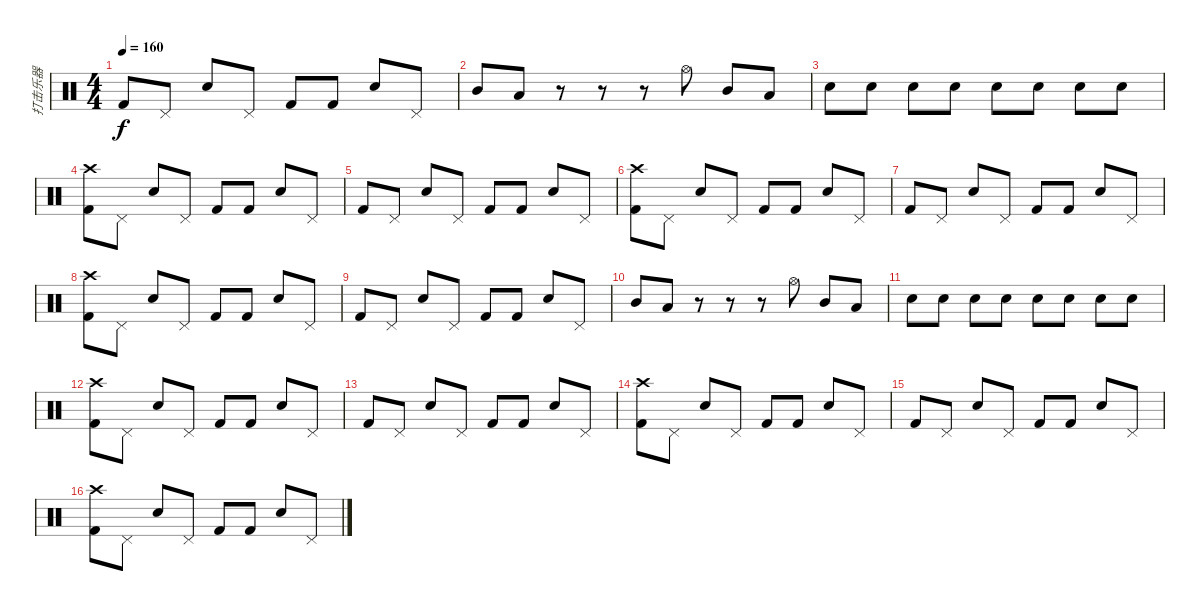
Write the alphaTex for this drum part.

\track ("打击乐器" "打击乐器") {instrument percussion}
\staff {score}
\articulation defaults
\ts (4 4)
\tempo 160
\clef neutral
\ks c "Kick (hit) 2".8{dy f} "Pedal Hi-Hat (hit)".8 "Snare (hit) 2".8 "Pedal Hi-Hat (hit)".8 "Kick (hit) 2".8 "Kick (hit) 2".8 "Snare (hit) 2".8 "Pedal Hi-Hat (hit)".8
|
"Mid Tom (hit)".8 "Low Tom (hit)".8 r.8 r.8 r.8 "Hi-Hat (open)".8 "Mid Tom (hit)".8 "Low Tom (hit)".8 |
"Snare (hit) 2".8 "Snare (hit) 2".8 "Snare (hit) 2".8 "Snare (hit) 2".8 "Snare (hit) 2".8 "Snare (hit) 2".8 "Snare (hit) 2".8 "Snare (hit) 2".8 |
("Crash high (hit)" "Kick (hit) 2").8 "Pedal Hi-Hat (hit)".8 "Snare (hit) 2".8 "Pedal Hi-Hat (hit)".8 "Kick (hit) 2".8 "Kick (hit) 2".8 "Snare (hit) 2".8 "Pedal Hi-Hat (hit)".8 |
"Kick (hit) 2".8 "Pedal Hi-Hat (hit)".8 "Snare (hit) 2".8 "Pedal Hi-Hat (hit)".8 "Kick (hit) 2".8 "Kick (hit) 2".8 "Snare (hit) 2".8 "Pedal Hi-Hat (hit)".8 |
("Crash high (hit)" "Kick (hit) 2").8 "Pedal Hi-Hat (hit)".8 "Snare (hit) 2".8 "Pedal Hi-Hat (hit)".8 "Kick (hit) 2".8 "Kick (hit) 2".8 "Snare (hit) 2".8 "Pedal Hi-Hat (hit)".8 |
"Kick (hit) 2".8 "Pedal Hi-Hat (hit)".8 "Snare (hit) 2".8 "Pedal Hi-Hat (hit)".8 "Kick (hit) 2".8 "Kick (hit) 2".8 "Snare (hit) 2".8 "Pedal Hi-Hat (hit)".8 |
("Crash high (hit)" "Kick (hit) 2").8 "Pedal Hi-Hat (hit)".8 "Snare (hit) 2".8 "Pedal Hi-Hat (hit)".8 "Kick (hit) 2".8 "Kick (hit) 2".8 "Snare (hit) 2".8 "Pedal Hi-Hat (hit)".8 |
"Kick (hit) 2".8 "Pedal Hi-Hat (hit)".8 "Snare (hit) 2".8 "Pedal Hi-Hat (hit)".8 "Kick (hit) 2".8 "Kick (hit) 2".8 "Snare (hit) 2".8 "Pedal Hi-Hat (hit)".8 |
"Mid Tom (hit)".8 "Low Tom (hit)".8 r.8 r.8 r.8 "Hi-Hat (open)".8 "Mid Tom (hit)".8 "Low Tom (hit)".8 |
"Snare (hit) 2".8 "Snare (hit) 2".8 "Snare (hit) 2".8 "Snare (hit) 2".8 "Snare (hit) 2".8 "Snare (hit) 2".8 "Snare (hit) 2".8 "Snare (hit) 2".8 |
("Crash high (hit)" "Kick (hit) 2").8 "Pedal Hi-Hat (hit)".8 "Snare (hit) 2".8 "Pedal Hi-Hat (hit)".8 "Kick (hit) 2".8 "Kick (hit) 2".8 "Snare (hit) 2".8 "Pedal Hi-Hat (hit)".8 |
"Kick (hit) 2".8 "Pedal Hi-Hat (hit)".8 "Snare (hit) 2".8 "Pedal Hi-Hat (hit)".8 "Kick (hit) 2".8 "Kick (hit) 2".8 "Snare (hit) 2".8 "Pedal Hi-Hat (hit)".8 |
("Crash high (hit)" "Kick (hit) 2").8 "Pedal Hi-Hat (hit)".8 "Snare (hit) 2".8 "Pedal Hi-Hat (hit)".8 "Kick (hit) 2".8 "Kick (hit) 2".8 "Snare (hit) 2".8 "Pedal Hi-Hat (hit)".8 |
"Kick (hit) 2".8 "Pedal Hi-Hat (hit)".8 "Snare (hit) 2".8 "Pedal Hi-Hat (hit)".8 "Kick (hit) 2".8 "Kick (hit) 2".8 "Snare (hit) 2".8 "Pedal Hi-Hat (hit)".8 |
("Crash high (hit)" "Kick (hit) 2").8 "Pedal Hi-Hat (hit)".8 "Snare (hit) 2".8 "Pedal Hi-Hat (hit)".8 "Kick (hit) 2".8 "Kick (hit) 2".8 "Snare (hit) 2".8 "Pedal Hi-Hat (hit)".8
